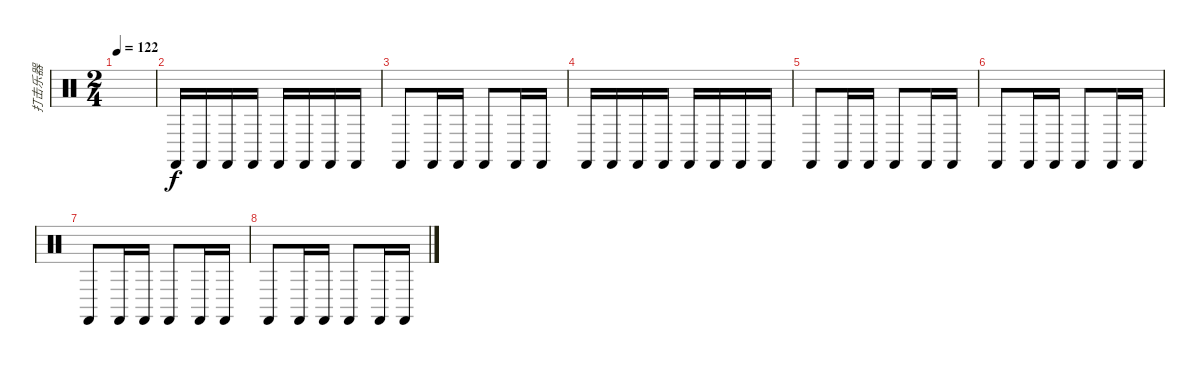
\track ("打击乐器" "打击乐器") {instrument percussion}
\staff {score}
\articulation defaults
\ts (2 4)
\tempo 122
\clef neutral
\ks c
|
"Castanets (hit)".16{dy f} "Castanets (hit)".16 "Castanets (hit)".16 "Castanets (hit)".16 "Castanets (hit)".16 "Castanets (hit)".16 "Castanets (hit)".16 "Castanets (hit)".16 |
"Castanets (hit)".8 "Castanets (hit)".16 "Castanets (hit)".16 "Castanets (hit)".8 "Castanets (hit)".16 "Castanets (hit)".16 |
"Castanets (hit)".16 "Castanets (hit)".16 "Castanets (hit)".16 "Castanets (hit)".16 "Castanets (hit)".16 "Castanets (hit)".16 "Castanets (hit)".16 "Castanets (hit)".16 |
"Castanets (hit)".8 "Castanets (hit)".16 "Castanets (hit)".16 "Castanets (hit)".8 "Castanets (hit)".16 "Castanets (hit)".16 |
"Castanets (hit)".8 "Castanets (hit)".16 "Castanets (hit)".16 "Castanets (hit)".8 "Castanets (hit)".16 "Castanets (hit)".16 |
"Castanets (hit)".8 "Castanets (hit)".16 "Castanets (hit)".16 "Castanets (hit)".8 "Castanets (hit)".16 "Castanets (hit)".16 |
"Castanets (hit)".8 "Castanets (hit)".16 "Castanets (hit)".16 "Castanets (hit)".8 "Castanets (hit)".16 "Castanets (hit)".16
